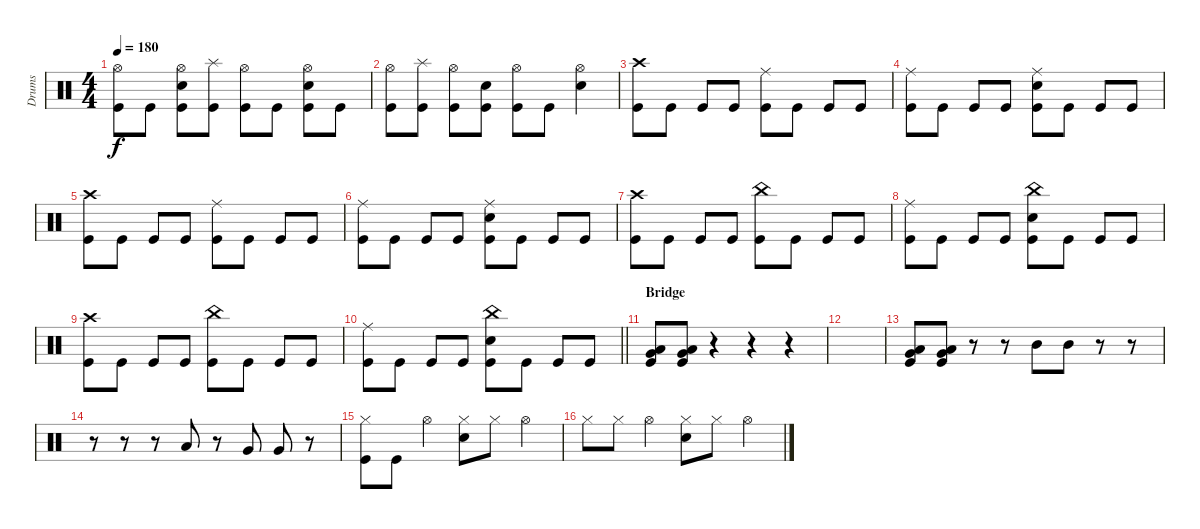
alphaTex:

\track ("Drums" "Drums") {instrument percussion}
\staff {score}
\articulation defaults
\ts (4 4)
\tempo 180
\clef neutral
\ks c
("Hi-Hat (open)" "Kick (hit)").8{dy f} "Kick (hit)".8 ("Snare (hit) 2" "Hi-Hat (open)" "Kick (hit)").8 ("Splash (hit)" "Kick (hit)").8 ("Hi-Hat (open)" "Kick (hit)").8 "Kick (hit)".8 ("Snare (hit) 2" "Hi-Hat (open)" "Kick (hit)").8 "Kick (hit)".8 |
("Hi-Hat (open)" "Kick (hit)").8 ("Splash (hit)" "Kick (hit)").8 ("Hi-Hat (open)" "Kick (hit)").8 ("Snare (hit) 2" "Kick (hit)").8 ("Hi-Hat (open)" "Kick (hit)").8 "Kick (hit)".8 ("Snare (hit) 2" "Hi-Hat (open)").4 |
("Crash high (hit)" "Kick (hit)").8 "Kick (hit)".8 "Kick (hit)".8 "Kick (hit)".8 ("Ride (middle)" "Kick (hit)").8 "Kick (hit)".8 "Kick (hit)".8 "Kick (hit)".8 |
("Ride (middle)" "Kick (hit)").8 "Kick (hit)".8 "Kick (hit)".8 "Kick (hit)".8 ("Ride (middle)" "Snare (hit) 2" "Kick (hit)").8 "Kick (hit)".8 "Kick (hit)".8 "Kick (hit)".8 |
("Crash high (hit)" "Kick (hit)").8 "Kick (hit)".8 "Kick (hit)".8 "Kick (hit)".8 ("Ride (middle)" "Kick (hit)").8 "Kick (hit)".8 "Kick (hit)".8 "Kick (hit)".8 |
("Ride (middle)" "Kick (hit)").8 "Kick (hit)".8 "Kick (hit)".8 "Kick (hit)".8 ("Ride (middle)" "Snare (hit) 2" "Kick (hit)").8 "Kick (hit)".8 "Kick (hit)".8 "Kick (hit)".8 |
("Crash high (hit)" "Kick (hit)").8 "Kick (hit)".8 "Kick (hit)".8 "Kick (hit)".8 ("China (hit)" "Kick (hit)").8 "Kick (hit)".8 "Kick (hit)".8 "Kick (hit)".8 |
("Ride (middle)" "Kick (hit)").8 "Kick (hit)".8 "Kick (hit)".8 "Kick (hit)".8 ("China (hit)" "Snare (hit) 2" "Kick (hit)").8 "Kick (hit)".8 "Kick (hit)".8 "Kick (hit)".8 |
("Crash high (hit)" "Kick (hit)").8 "Kick (hit)".8 "Kick (hit)".8 "Kick (hit)".8 ("China (hit)" "Kick (hit)").8 "Kick (hit)".8 "Kick (hit)".8 "Kick (hit)".8 |
\barLineRight lightlight
("Ride (middle)" "Kick (hit)").8 "Kick (hit)".8 "Kick (hit)".8 "Kick (hit)".8 ("China (hit)" "Snare (hit) 2" "Kick (hit)").8 "Kick (hit)".8 "Kick (hit)".8 "Kick (hit)".8 |
\section ("" "Bridge")
("Very Low Tom (hit)" "Low Tom (hit)" "Kick (hit)").8 ("Very Low Tom (hit)" "Low Tom (hit)" "Kick (hit)").8 r.4 r.4 r.4 |
|
("Very Low Tom (hit)" "Low Tom (hit)" "Kick (hit)").8 ("Very Low Tom (hit)" "Low Tom (hit)" "Kick (hit)").8 r.8 r.8 "Mid Tom (hit)".8 "Mid Tom (hit)".8 r.8 r.8 |
r.8 r.8 r.8 "Low Tom (hit)".8 r.8 "Very Low Tom (hit)".8 "Very Low Tom (hit)".8 r.8 |
("Hi-Hat (closed)" "Kick (hit)").8 "Kick (hit)".8 "Hi-Hat (open)".4 ("Hi-Hat (closed)" "Snare (hit) 2").8 "Hi-Hat (closed)".8 "Hi-Hat (open)".4 |
"Hi-Hat (closed)".8 "Hi-Hat (closed)".8 "Hi-Hat (open)".4 ("Hi-Hat (closed)" "Snare (hit) 2").8 "Hi-Hat (closed)".8 "Hi-Hat (open)".4
